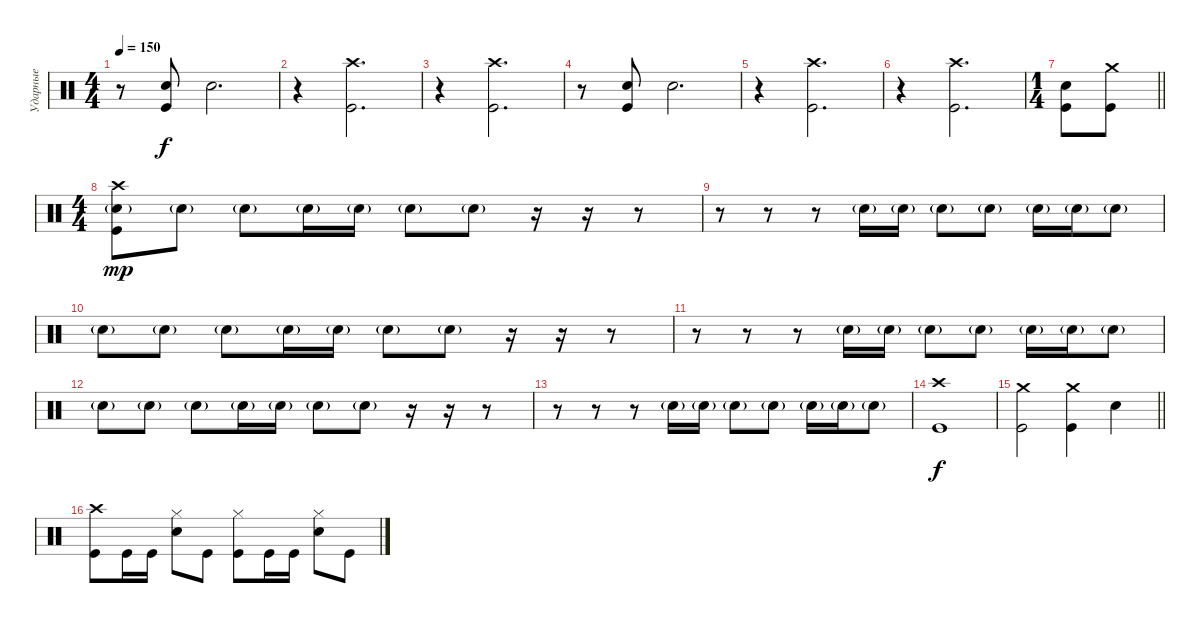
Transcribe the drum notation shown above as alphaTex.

\track ("Ударные" "Ударные") {instrument percussion}
\staff {score}
\articulation defaults
\ts (4 4)
\tempo 150
\clef neutral
\ks c
r.8{dy f} ("Electric Snare (hit)" "Kick (hit)").8 "Electric Snare (hit)".2{d} |
r.4 ("Crash high (hit)" "Kick (hit)").2{d} |
r.4 ("Crash high (hit)" "Kick (hit)").2{d} |
r.8 ("Electric Snare (hit)" "Kick (hit)").8 "Electric Snare (hit)".2{d} |
r.4 ("Crash high (hit)" "Kick (hit)").2{d} |
r.4 ("Crash high (hit)" "Kick (hit)").2{d} |
\ts (1 4)
\barLineRight lightlight
("Electric Snare (hit)" "Kick (hit)").8 ("Crash medium (hit)" "Kick (hit)").8 |
\ts (4 4)
("Crash high (hit)" "Electric Snare (hit)"{g} "Kick (hit)").8{dy mp} "Electric Snare (hit)"{g}.8 "Electric Snare (hit)"{g}.8 "Electric Snare (hit)"{g}.16 "Electric Snare (hit)"{g}.16 "Electric Snare (hit)"{g}.8 "Electric Snare (hit)"{g}.8 r.16 r.16 r.8 |
r.8 r.8 r.8 "Electric Snare (hit)"{g}.16 "Electric Snare (hit)"{g}.16 "Electric Snare (hit)"{g}.8 "Electric Snare (hit)"{g}.8 "Electric Snare (hit)"{g}.16 "Electric Snare (hit)"{g}.16 "Electric Snare (hit)"{g}.8 |
"Electric Snare (hit)"{g}.8 "Electric Snare (hit)"{g}.8 "Electric Snare (hit)"{g}.8 "Electric Snare (hit)"{g}.16 "Electric Snare (hit)"{g}.16 "Electric Snare (hit)"{g}.8 "Electric Snare (hit)"{g}.8 r.16 r.16 r.8 |
r.8 r.8 r.8 "Electric Snare (hit)"{g}.16 "Electric Snare (hit)"{g}.16 "Electric Snare (hit)"{g}.8 "Electric Snare (hit)"{g}.8 "Electric Snare (hit)"{g}.16 "Electric Snare (hit)"{g}.16 "Electric Snare (hit)"{g}.8 |
"Electric Snare (hit)"{g}.8 "Electric Snare (hit)"{g}.8 "Electric Snare (hit)"{g}.8 "Electric Snare (hit)"{g}.16 "Electric Snare (hit)"{g}.16 "Electric Snare (hit)"{g}.8 "Electric Snare (hit)"{g}.8 r.16 r.16 r.8 |
r.8 r.8 r.8 "Electric Snare (hit)"{g}.16 "Electric Snare (hit)"{g}.16 "Electric Snare (hit)"{g}.8 "Electric Snare (hit)"{g}.8 "Electric Snare (hit)"{g}.16 "Electric Snare (hit)"{g}.16 "Electric Snare (hit)"{g}.8 |
("Crash high (hit)" "Kick (hit)").1{dy f} |
\barLineRight lightlight
("Crash medium (hit)" "Kick (hit)").2 ("Crash medium (hit)" "Kick (hit)").4 "Electric Snare (hit)".4 |
("Crash high (hit)" "Kick (hit)").8 "Kick (hit)".16 "Kick (hit)".16 ("Hi-Hat (closed)" "Electric Snare (hit)").8 "Kick (hit)".8 ("Hi-Hat (closed)" "Kick (hit)").8 "Kick (hit)".16 "Kick (hit)".16 ("Hi-Hat (closed)" "Electric Snare (hit)").8 "Kick (hit)".8
